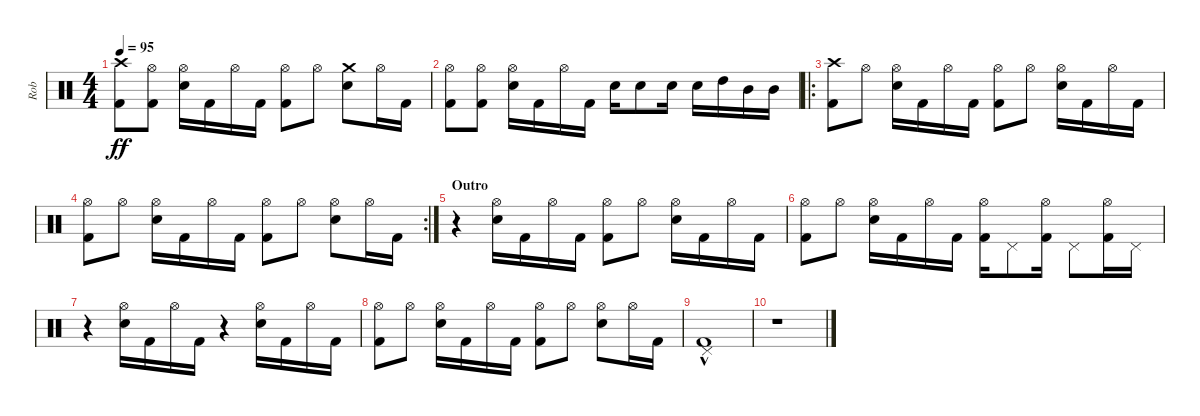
\track ("Rob" "Rob") {instrument percussion}
\staff {score}
\articulation defaults
\ts (4 4)
\tempo 95
\clef neutral
\ks c
("Crash high (hit)" "Kick (hit) 2").8{dy ff} ("Hi-Hat (open)" "Kick (hit) 2").8 ("Hi-Hat (open)" "Snare (hit) 2").16 "Kick (hit) 2".16 "Hi-Hat (open)".16 "Kick (hit) 2".16 ("Hi-Hat (open)" "Kick (hit) 2").8 "Hi-Hat (open)".8 ("Crash medium (hit)" "Snare (hit) 2").8 "Hi-Hat (open)".16 "Kick (hit) 2".16 |
("Hi-Hat (open)" "Kick (hit) 2").8 ("Hi-Hat (open)" "Kick (hit) 2").8 ("Hi-Hat (open)" "Snare (hit) 2").16 "Kick (hit) 2".16 "Hi-Hat (open)".16 "Kick (hit) 2".16 "Snare (hit) 2".16 "Snare (hit) 2".8 "Snare (hit) 2".16 "Snare (hit) 2".16 "High Tom (hit)".16 "Mid Tom (hit)".16 "Mid Tom (hit)".16 |
\ro
("Crash high (hit)" "Kick (hit) 2").8 "Hi-Hat (open)".8 ("Hi-Hat (open)" "Snare (hit) 2").16 "Kick (hit) 2".16 "Hi-Hat (open)".16 "Kick (hit) 2".16 ("Hi-Hat (open)" "Kick (hit) 2").8 "Hi-Hat (open)".8 ("Hi-Hat (open)" "Snare (hit) 2").16 "Kick (hit) 2".16 "Hi-Hat (open)".16 "Kick (hit) 2".16 |
\rc 2
("Hi-Hat (open)" "Kick (hit) 2").8 "Hi-Hat (open)".8 ("Hi-Hat (open)" "Snare (hit) 2").16 "Kick (hit) 2".16 "Hi-Hat (open)".16 "Kick (hit) 2".16 ("Hi-Hat (open)" "Kick (hit) 2").8 "Hi-Hat (open)".8 ("Hi-Hat (open)" "Snare (hit) 2").8 "Hi-Hat (open)".16 "Kick (hit) 2".16 |
\section ("" "Outro")
r.4 ("Hi-Hat (open)" "Snare (hit) 2").16 "Kick (hit) 2".16 "Hi-Hat (open)".16 "Kick (hit) 2".16 ("Hi-Hat (open)" "Kick (hit) 2").8 "Hi-Hat (open)".8 ("Hi-Hat (open)" "Snare (hit) 2").16 "Kick (hit) 2".16 "Hi-Hat (open)".16 "Kick (hit) 2".16 |
("Hi-Hat (open)" "Kick (hit) 2").8 "Hi-Hat (open)".8 ("Hi-Hat (open)" "Snare (hit) 2").16 "Kick (hit) 2".16 "Hi-Hat (open)".16 "Kick (hit) 2".16 ("Hi-Hat (open)" "Kick (hit) 2").16 "Pedal Hi-Hat (hit)".8 ("Hi-Hat (open)" "Kick (hit) 2").16 "Pedal Hi-Hat (hit)".8 ("Hi-Hat (open)" "Kick (hit) 2").16 "Pedal Hi-Hat (hit)".16 |
r.4 ("Hi-Hat (open)" "Snare (hit) 2").16 "Kick (hit) 2".16 "Hi-Hat (open)".16 "Kick (hit) 2".16 r.4 ("Hi-Hat (open)" "Snare (hit) 2").16 "Kick (hit) 2".16 "Hi-Hat (open)".16 "Kick (hit) 2".16 |
("Hi-Hat (open)" "Kick (hit) 2").8 "Hi-Hat (open)".8 ("Hi-Hat (open)" "Snare (hit) 2").16 "Kick (hit) 2".16 "Hi-Hat (open)".16 "Kick (hit) 2".16 ("Hi-Hat (open)" "Kick (hit) 2").8 "Hi-Hat (open)".8 ("Hi-Hat (open)" "Snare (hit) 2").8 "Hi-Hat (open)".16 "Kick (hit) 2".16 |
("Kick (hit) 2"{hac} "Pedal Hi-Hat (hit)").1 |
r.1
